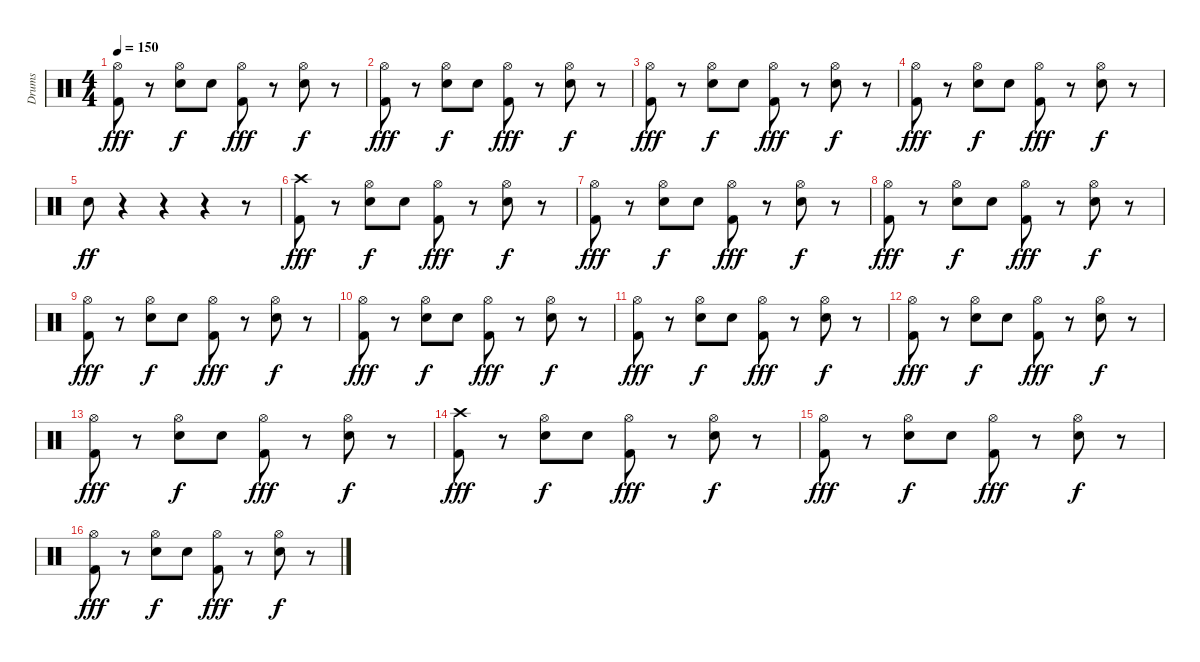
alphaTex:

\track ("Drums" "Drums") {instrument percussion}
\staff {score}
\articulation defaults
\ts (4 4)
\tempo 150
\clef neutral
\ks c
("Hi-Hat (open)" "Kick (hit) 2").8{dy fff} r.8 ("Hi-Hat (open)" "Snare (hit) 2").8{dy f} "Snare (hit) 2".8 ("Hi-Hat (open)" "Kick (hit) 2").8{dy fff} r.8 ("Hi-Hat (open)" "Snare (hit) 2").8{dy f} r.8 |
("Hi-Hat (open)" "Kick (hit) 2").8{dy fff} r.8 ("Hi-Hat (open)" "Snare (hit) 2").8{dy f} "Snare (hit) 2".8 ("Hi-Hat (open)" "Kick (hit) 2").8{dy fff} r.8 ("Hi-Hat (open)" "Snare (hit) 2").8{dy f} r.8 |
("Hi-Hat (open)" "Kick (hit) 2").8{dy fff} r.8 ("Hi-Hat (open)" "Snare (hit) 2").8{dy f} "Snare (hit) 2".8 ("Hi-Hat (open)" "Kick (hit) 2").8{dy fff} r.8 ("Hi-Hat (open)" "Snare (hit) 2").8{dy f} r.8 |
("Hi-Hat (open)" "Kick (hit) 2").8{dy fff} r.8 ("Hi-Hat (open)" "Snare (hit) 2").8{dy f} "Snare (hit) 2".8 ("Hi-Hat (open)" "Kick (hit) 2").8{dy fff} r.8 ("Hi-Hat (open)" "Snare (hit) 2").8{dy f} r.8 |
"Snare (hit) 2".8{dy ff} r.4 r.4 r.4 r.8 |
("Crash high (hit)" "Kick (hit) 2").8{dy fff} r.8 ("Hi-Hat (open)" "Snare (hit) 2").8{dy f} "Snare (hit) 2".8 ("Hi-Hat (open)" "Kick (hit) 2").8{dy fff} r.8 ("Hi-Hat (open)" "Snare (hit) 2").8{dy f} r.8 |
("Hi-Hat (open)" "Kick (hit) 2").8{dy fff} r.8 ("Hi-Hat (open)" "Snare (hit) 2").8{dy f} "Snare (hit) 2".8 ("Hi-Hat (open)" "Kick (hit) 2").8{dy fff} r.8 ("Hi-Hat (open)" "Snare (hit) 2").8{dy f} r.8 |
("Hi-Hat (open)" "Kick (hit) 2").8{dy fff} r.8 ("Hi-Hat (open)" "Snare (hit) 2").8{dy f} "Snare (hit) 2".8 ("Hi-Hat (open)" "Kick (hit) 2").8{dy fff} r.8 ("Hi-Hat (open)" "Snare (hit) 2").8{dy f} r.8 |
("Hi-Hat (open)" "Kick (hit) 2").8{dy fff} r.8 ("Hi-Hat (open)" "Snare (hit) 2").8{dy f} "Snare (hit) 2".8 ("Hi-Hat (open)" "Kick (hit) 2").8{dy fff} r.8 ("Hi-Hat (open)" "Snare (hit) 2").8{dy f} r.8 |
("Hi-Hat (open)" "Kick (hit) 2").8{dy fff} r.8 ("Hi-Hat (open)" "Snare (hit) 2").8{dy f} "Snare (hit) 2".8 ("Hi-Hat (open)" "Kick (hit) 2").8{dy fff} r.8 ("Hi-Hat (open)" "Snare (hit) 2").8{dy f} r.8 |
("Hi-Hat (open)" "Kick (hit) 2").8{dy fff} r.8 ("Hi-Hat (open)" "Snare (hit) 2").8{dy f} "Snare (hit) 2".8 ("Hi-Hat (open)" "Kick (hit) 2").8{dy fff} r.8 ("Hi-Hat (open)" "Snare (hit) 2").8{dy f} r.8 |
("Hi-Hat (open)" "Kick (hit) 2").8{dy fff} r.8 ("Hi-Hat (open)" "Snare (hit) 2").8{dy f} "Snare (hit) 2".8 ("Hi-Hat (open)" "Kick (hit) 2").8{dy fff} r.8 ("Hi-Hat (open)" "Snare (hit) 2").8{dy f} r.8 |
("Hi-Hat (open)" "Kick (hit) 2").8{dy fff} r.8 ("Hi-Hat (open)" "Snare (hit) 2").8{dy f} "Snare (hit) 2".8 ("Hi-Hat (open)" "Kick (hit) 2").8{dy fff} r.8 ("Hi-Hat (open)" "Snare (hit) 2").8{dy f} r.8 |
("Crash high (hit)" "Kick (hit) 2").8{dy fff} r.8 ("Hi-Hat (open)" "Snare (hit) 2").8{dy f} "Snare (hit) 2".8 ("Hi-Hat (open)" "Kick (hit) 2").8{dy fff} r.8 ("Hi-Hat (open)" "Snare (hit) 2").8{dy f} r.8 |
("Hi-Hat (open)" "Kick (hit) 2").8{dy fff} r.8 ("Hi-Hat (open)" "Snare (hit) 2").8{dy f} "Snare (hit) 2".8 ("Hi-Hat (open)" "Kick (hit) 2").8{dy fff} r.8 ("Hi-Hat (open)" "Snare (hit) 2").8{dy f} r.8 |
("Hi-Hat (open)" "Kick (hit) 2").8{dy fff} r.8 ("Hi-Hat (open)" "Snare (hit) 2").8{dy f} "Snare (hit) 2".8 ("Hi-Hat (open)" "Kick (hit) 2").8{dy fff} r.8 ("Hi-Hat (open)" "Snare (hit) 2").8{dy f} r.8
